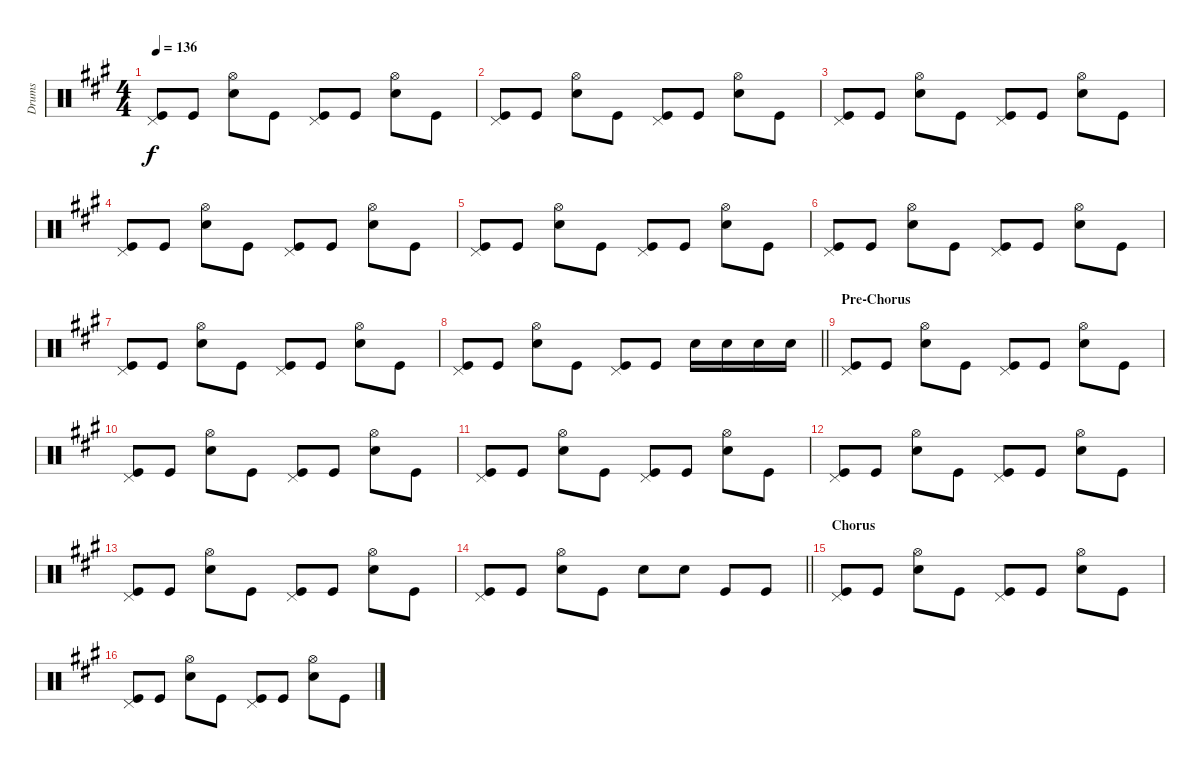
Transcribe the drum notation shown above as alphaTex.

\track ("Drums" "Drums") {instrument percussion}
\staff {score}
\articulation defaults
\ts (4 4)
\tempo 136
\clef neutral
\ks a
("Pedal Hi-Hat (hit)" "Kick (hit)").8{dy f} "Kick (hit)".8 ("Hi-Hat (open)" "Snare (hit) 2").8 "Kick (hit)".8 ("Pedal Hi-Hat (hit)" "Kick (hit)").8 "Kick (hit)".8 ("Hi-Hat (open)" "Snare (hit) 2").8 "Kick (hit)".8 |
("Pedal Hi-Hat (hit)" "Kick (hit)").8 "Kick (hit)".8 ("Hi-Hat (open)" "Snare (hit) 2").8 "Kick (hit)".8 ("Pedal Hi-Hat (hit)" "Kick (hit)").8 "Kick (hit)".8 ("Hi-Hat (open)" "Snare (hit) 2").8 "Kick (hit)".8 |
("Pedal Hi-Hat (hit)" "Kick (hit)").8 "Kick (hit)".8 ("Hi-Hat (open)" "Snare (hit) 2").8 "Kick (hit)".8 ("Pedal Hi-Hat (hit)" "Kick (hit)").8 "Kick (hit)".8 ("Hi-Hat (open)" "Snare (hit) 2").8 "Kick (hit)".8 |
("Pedal Hi-Hat (hit)" "Kick (hit)").8 "Kick (hit)".8 ("Hi-Hat (open)" "Snare (hit) 2").8 "Kick (hit)".8 ("Pedal Hi-Hat (hit)" "Kick (hit)").8 "Kick (hit)".8 ("Hi-Hat (open)" "Snare (hit) 2").8 "Kick (hit)".8 |
("Pedal Hi-Hat (hit)" "Kick (hit)").8 "Kick (hit)".8 ("Hi-Hat (open)" "Snare (hit) 2").8 "Kick (hit)".8 ("Pedal Hi-Hat (hit)" "Kick (hit)").8 "Kick (hit)".8 ("Hi-Hat (open)" "Snare (hit) 2").8 "Kick (hit)".8 |
("Pedal Hi-Hat (hit)" "Kick (hit)").8 "Kick (hit)".8 ("Hi-Hat (open)" "Snare (hit) 2").8 "Kick (hit)".8 ("Pedal Hi-Hat (hit)" "Kick (hit)").8 "Kick (hit)".8 ("Hi-Hat (open)" "Snare (hit) 2").8 "Kick (hit)".8 |
("Pedal Hi-Hat (hit)" "Kick (hit)").8 "Kick (hit)".8 ("Hi-Hat (open)" "Snare (hit) 2").8 "Kick (hit)".8 ("Pedal Hi-Hat (hit)" "Kick (hit)").8 "Kick (hit)".8 ("Hi-Hat (open)" "Snare (hit) 2").8 "Kick (hit)".8 |
\barLineRight lightlight
("Pedal Hi-Hat (hit)" "Kick (hit)").8 "Kick (hit)".8 ("Hi-Hat (open)" "Snare (hit) 2").8 "Kick (hit)".8 ("Pedal Hi-Hat (hit)" "Kick (hit)").8 "Kick (hit)".8 "Snare (hit) 2".16 "Snare (hit) 2".16 "Snare (hit) 2".16 "Snare (hit) 2".16 |
\section ("" "Pre-Chorus")
("Pedal Hi-Hat (hit)" "Kick (hit)").8 "Kick (hit)".8 ("Hi-Hat (open)" "Snare (hit) 2").8 "Kick (hit)".8 ("Pedal Hi-Hat (hit)" "Kick (hit)").8 "Kick (hit)".8 ("Hi-Hat (open)" "Snare (hit) 2").8 "Kick (hit)".8 |
("Pedal Hi-Hat (hit)" "Kick (hit)").8 "Kick (hit)".8 ("Hi-Hat (open)" "Snare (hit) 2").8 "Kick (hit)".8 ("Pedal Hi-Hat (hit)" "Kick (hit)").8 "Kick (hit)".8 ("Hi-Hat (open)" "Snare (hit) 2").8 "Kick (hit)".8 |
("Pedal Hi-Hat (hit)" "Kick (hit)").8 "Kick (hit)".8 ("Hi-Hat (open)" "Snare (hit) 2").8 "Kick (hit)".8 ("Pedal Hi-Hat (hit)" "Kick (hit)").8 "Kick (hit)".8 ("Hi-Hat (open)" "Snare (hit) 2").8 "Kick (hit)".8 |
("Pedal Hi-Hat (hit)" "Kick (hit)").8 "Kick (hit)".8 ("Hi-Hat (open)" "Snare (hit) 2").8 "Kick (hit)".8 ("Pedal Hi-Hat (hit)" "Kick (hit)").8 "Kick (hit)".8 ("Hi-Hat (open)" "Snare (hit) 2").8 "Kick (hit)".8 |
("Pedal Hi-Hat (hit)" "Kick (hit)").8 "Kick (hit)".8 ("Hi-Hat (open)" "Snare (hit) 2").8 "Kick (hit)".8 ("Pedal Hi-Hat (hit)" "Kick (hit)").8 "Kick (hit)".8 ("Hi-Hat (open)" "Snare (hit) 2").8 "Kick (hit)".8 |
\barLineRight lightlight
("Pedal Hi-Hat (hit)" "Kick (hit)").8 "Kick (hit)".8 ("Hi-Hat (open)" "Snare (hit) 2").8 "Kick (hit)".8 "Snare (hit) 2".8 "Snare (hit) 2".8 "Kick (hit)".8 "Kick (hit)".8 |
\section ("" "Chorus")
("Pedal Hi-Hat (hit)" "Kick (hit)").8 "Kick (hit)".8 ("Hi-Hat (open)" "Snare (hit) 2").8 "Kick (hit)".8 ("Pedal Hi-Hat (hit)" "Kick (hit)").8 "Kick (hit)".8 ("Hi-Hat (open)" "Snare (hit) 2").8 "Kick (hit)".8 |
("Pedal Hi-Hat (hit)" "Kick (hit)").8 "Kick (hit)".8 ("Hi-Hat (open)" "Snare (hit) 2").8 "Kick (hit)".8 ("Pedal Hi-Hat (hit)" "Kick (hit)").8 "Kick (hit)".8 ("Hi-Hat (open)" "Snare (hit) 2").8 "Kick (hit)".8
